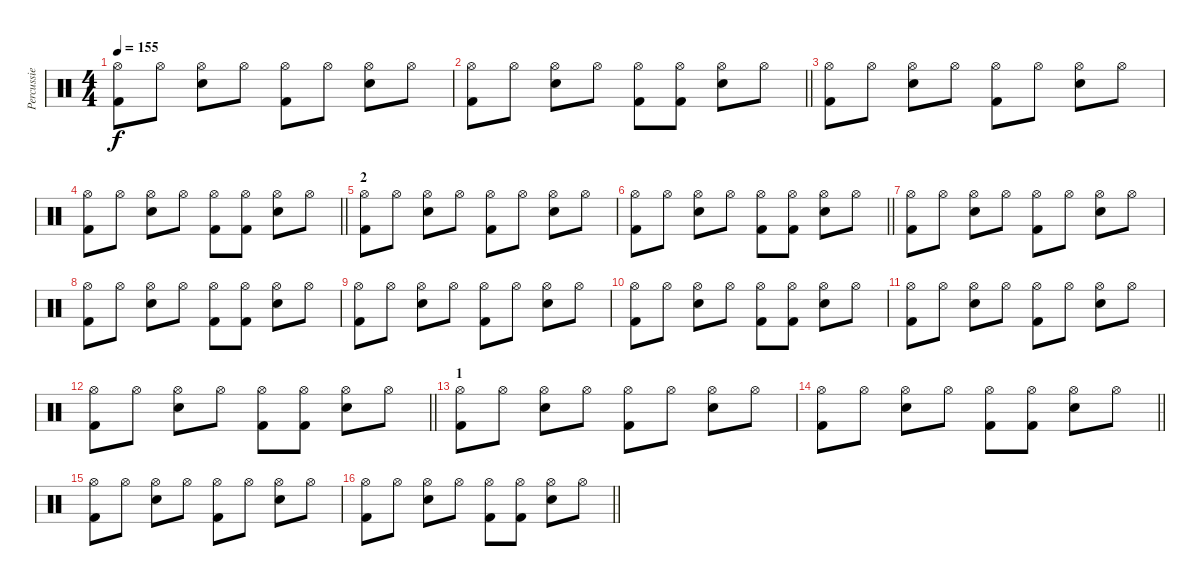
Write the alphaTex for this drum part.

\track ("Percussie" "Percussie") {instrument percussion}
\staff {score}
\articulation defaults
\ts (4 4)
\tempo 155
\clef neutral
\ks c
("Hi-Hat (open)" "Kick (hit) 2").8{dy f} "Hi-Hat (open)".8 ("Hi-Hat (open)" "Snare (hit) 2").8 "Hi-Hat (open)".8 ("Hi-Hat (open)" "Kick (hit) 2").8 "Hi-Hat (open)".8 ("Hi-Hat (open)" "Snare (hit) 2").8 "Hi-Hat (open)".8 |
\barLineRight lightlight
("Hi-Hat (open)" "Kick (hit) 2").8 "Hi-Hat (open)".8 ("Hi-Hat (open)" "Snare (hit) 2").8 "Hi-Hat (open)".8 ("Hi-Hat (open)" "Kick (hit) 2").8 ("Hi-Hat (open)" "Kick (hit) 2").8 ("Hi-Hat (open)" "Snare (hit) 2").8 "Hi-Hat (open)".8 |
("Hi-Hat (open)" "Kick (hit) 2").8 "Hi-Hat (open)".8 ("Hi-Hat (open)" "Snare (hit) 2").8 "Hi-Hat (open)".8 ("Hi-Hat (open)" "Kick (hit) 2").8 "Hi-Hat (open)".8 ("Hi-Hat (open)" "Snare (hit) 2").8 "Hi-Hat (open)".8 |
\barLineRight lightlight
("Hi-Hat (open)" "Kick (hit) 2").8 "Hi-Hat (open)".8 ("Hi-Hat (open)" "Snare (hit) 2").8 "Hi-Hat (open)".8 ("Hi-Hat (open)" "Kick (hit) 2").8 ("Hi-Hat (open)" "Kick (hit) 2").8 ("Hi-Hat (open)" "Snare (hit) 2").8 "Hi-Hat (open)".8 |
\section ("" "2")
("Hi-Hat (open)" "Kick (hit) 2").8 "Hi-Hat (open)".8 ("Hi-Hat (open)" "Snare (hit) 2").8 "Hi-Hat (open)".8 ("Hi-Hat (open)" "Kick (hit) 2").8 "Hi-Hat (open)".8 ("Hi-Hat (open)" "Snare (hit) 2").8 "Hi-Hat (open)".8 |
\barLineRight lightlight
("Hi-Hat (open)" "Kick (hit) 2").8 "Hi-Hat (open)".8 ("Hi-Hat (open)" "Snare (hit) 2").8 "Hi-Hat (open)".8 ("Hi-Hat (open)" "Kick (hit) 2").8 ("Hi-Hat (open)" "Kick (hit) 2").8 ("Hi-Hat (open)" "Snare (hit) 2").8 "Hi-Hat (open)".8 |
("Hi-Hat (open)" "Kick (hit) 2").8 "Hi-Hat (open)".8 ("Hi-Hat (open)" "Snare (hit) 2").8 "Hi-Hat (open)".8 ("Hi-Hat (open)" "Kick (hit) 2").8 "Hi-Hat (open)".8 ("Hi-Hat (open)" "Snare (hit) 2").8 "Hi-Hat (open)".8 |
("Hi-Hat (open)" "Kick (hit) 2").8 "Hi-Hat (open)".8 ("Hi-Hat (open)" "Snare (hit) 2").8 "Hi-Hat (open)".8 ("Hi-Hat (open)" "Kick (hit) 2").8 ("Hi-Hat (open)" "Kick (hit) 2").8 ("Hi-Hat (open)" "Snare (hit) 2").8 "Hi-Hat (open)".8 |
("Hi-Hat (open)" "Kick (hit) 2").8 "Hi-Hat (open)".8 ("Hi-Hat (open)" "Snare (hit) 2").8 "Hi-Hat (open)".8 ("Hi-Hat (open)" "Kick (hit) 2").8 "Hi-Hat (open)".8 ("Hi-Hat (open)" "Snare (hit) 2").8 "Hi-Hat (open)".8 |
("Hi-Hat (open)" "Kick (hit) 2").8 "Hi-Hat (open)".8 ("Hi-Hat (open)" "Snare (hit) 2").8 "Hi-Hat (open)".8 ("Hi-Hat (open)" "Kick (hit) 2").8 ("Hi-Hat (open)" "Kick (hit) 2").8 ("Hi-Hat (open)" "Snare (hit) 2").8 "Hi-Hat (open)".8 |
("Hi-Hat (open)" "Kick (hit) 2").8 "Hi-Hat (open)".8 ("Hi-Hat (open)" "Snare (hit) 2").8 "Hi-Hat (open)".8 ("Hi-Hat (open)" "Kick (hit) 2").8 "Hi-Hat (open)".8 ("Hi-Hat (open)" "Snare (hit) 2").8 "Hi-Hat (open)".8 |
\barLineRight lightlight
("Hi-Hat (open)" "Kick (hit) 2").8 "Hi-Hat (open)".8 ("Hi-Hat (open)" "Snare (hit) 2").8 "Hi-Hat (open)".8 ("Hi-Hat (open)" "Kick (hit) 2").8 ("Hi-Hat (open)" "Kick (hit) 2").8 ("Hi-Hat (open)" "Snare (hit) 2").8 "Hi-Hat (open)".8 |
\section ("" "1")
("Hi-Hat (open)" "Kick (hit) 2").8 "Hi-Hat (open)".8 ("Hi-Hat (open)" "Snare (hit) 2").8 "Hi-Hat (open)".8 ("Hi-Hat (open)" "Kick (hit) 2").8 "Hi-Hat (open)".8 ("Hi-Hat (open)" "Snare (hit) 2").8 "Hi-Hat (open)".8 |
\barLineRight lightlight
("Hi-Hat (open)" "Kick (hit) 2").8 "Hi-Hat (open)".8 ("Hi-Hat (open)" "Snare (hit) 2").8 "Hi-Hat (open)".8 ("Hi-Hat (open)" "Kick (hit) 2").8 ("Hi-Hat (open)" "Kick (hit) 2").8 ("Hi-Hat (open)" "Snare (hit) 2").8 "Hi-Hat (open)".8 |
("Hi-Hat (open)" "Kick (hit) 2").8 "Hi-Hat (open)".8 ("Hi-Hat (open)" "Snare (hit) 2").8 "Hi-Hat (open)".8 ("Hi-Hat (open)" "Kick (hit) 2").8 "Hi-Hat (open)".8 ("Hi-Hat (open)" "Snare (hit) 2").8 "Hi-Hat (open)".8 |
\barLineRight lightlight
("Hi-Hat (open)" "Kick (hit) 2").8 "Hi-Hat (open)".8 ("Hi-Hat (open)" "Snare (hit) 2").8 "Hi-Hat (open)".8 ("Hi-Hat (open)" "Kick (hit) 2").8 ("Hi-Hat (open)" "Kick (hit) 2").8 ("Hi-Hat (open)" "Snare (hit) 2").8 "Hi-Hat (open)".8
